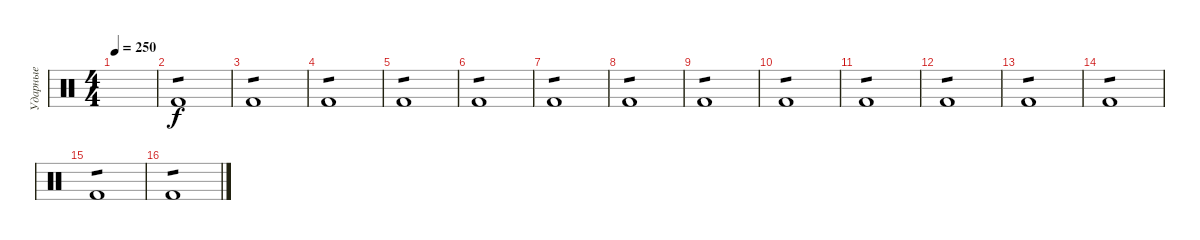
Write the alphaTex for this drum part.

\track ("Ударные" "Ударные") {instrument percussion}
\staff {score}
\articulation defaults
\ts (4 4)
\tempo 250
\clef neutral
\ks c
|
"Kick (hit) 2".1{tp 1} |
"Kick (hit) 2".1{tp 1} |
"Kick (hit) 2".1{tp 1} |
"Kick (hit) 2".1{tp 1} |
"Kick (hit) 2".1{tp 1} |
"Kick (hit) 2".1{tp 1} |
"Kick (hit) 2".1{tp 1} |
"Kick (hit) 2".1{tp 1} |
"Kick (hit) 2".1{tp 1} |
"Kick (hit) 2".1{tp 1} |
"Kick (hit) 2".1{tp 1} |
"Kick (hit) 2".1{tp 1} |
"Kick (hit) 2".1{tp 1} |
"Kick (hit) 2".1{tp 1} |
"Kick (hit) 2".1{tp 1}
